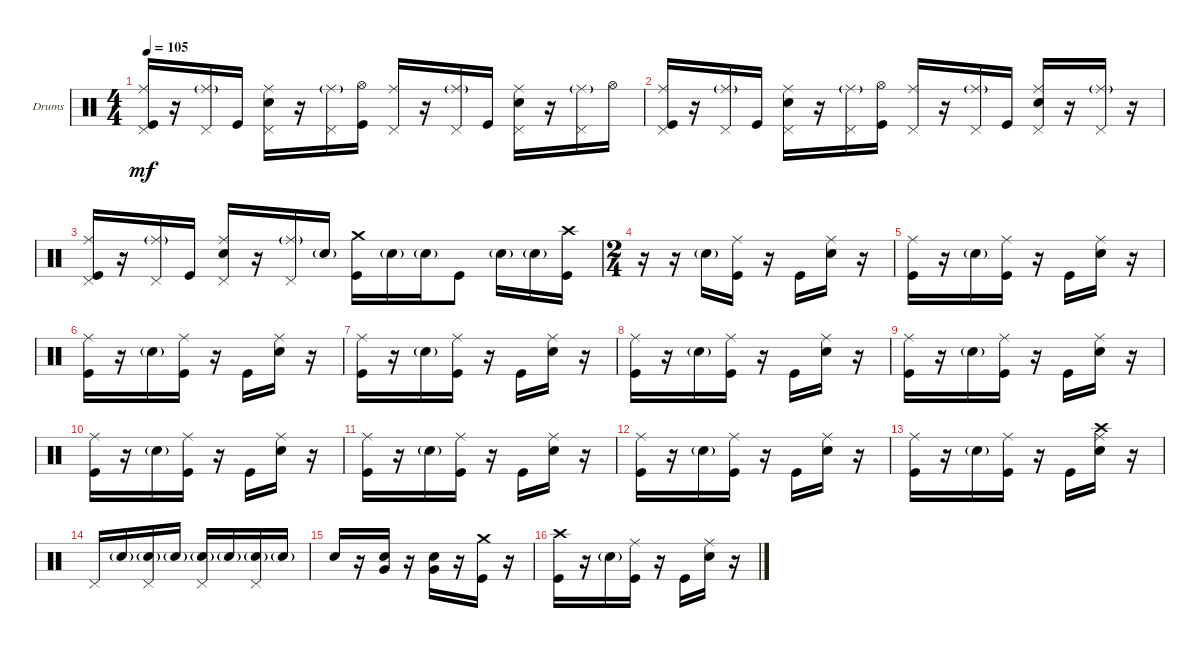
\defaultSystemsLayout 4
\bracketExtendMode groupsimilarinstruments
\firstSystemTrackNameOrientation horizontal
\otherSystemsTrackNameOrientation horizontal
\track ("Godd" "Drums") {instrument percussion}
\staff {score}
\articulation defaults
\ts (4 4)
\tempo 105
\clef neutral
\ks c
("Pedal Hi-Hat (hit)" "Kick (hit)" "Ride (middle)").16{dy mf} r.16 ("Pedal Hi-Hat (hit)" "Ride (middle)"{g}).16 "Kick (hit)".16 ("Pedal Hi-Hat (hit)" "Snare (hit) 2" "Ride (middle)").16 r.16 ("Pedal Hi-Hat (hit)" "Ride (middle)"{g}).16 ("Kick (hit)" "Hi-Hat (open)").16 ("Pedal Hi-Hat (hit)" "Ride (middle)").16 r.16 ("Pedal Hi-Hat (hit)" "Ride (middle)"{g}).16 "Kick (hit)".16 ("Pedal Hi-Hat (hit)" "Ride (middle)" "Snare (hit) 2").16 r.16 ("Pedal Hi-Hat (hit)" "Ride (middle)"{g}).16 "Hi-Hat (open)".16 |
("Pedal Hi-Hat (hit)" "Kick (hit)" "Ride (middle)").16 r.16 ("Pedal Hi-Hat (hit)" "Ride (middle)"{g}).16 "Kick (hit)".16 ("Pedal Hi-Hat (hit)" "Snare (hit) 2" "Ride (middle)").16 r.16 ("Pedal Hi-Hat (hit)" "Ride (middle)"{g}).16 ("Kick (hit)" "Hi-Hat (open)").16 ("Pedal Hi-Hat (hit)" "Ride (middle)").16 r.16 ("Pedal Hi-Hat (hit)" "Ride (middle)"{g}).16 "Kick (hit)".16 ("Pedal Hi-Hat (hit)" "Ride (middle)" "Snare (hit) 2").16 r.16 ("Pedal Hi-Hat (hit)" "Ride (middle)"{g}).16 r.16 |
("Pedal Hi-Hat (hit)" "Kick (hit)" "Ride (middle)").16 r.16 ("Pedal Hi-Hat (hit)" "Ride (middle)"{g}).16 "Kick (hit)".16 ("Pedal Hi-Hat (hit)" "Snare (hit) 2" "Ride (middle)").16 r.16 ("Pedal Hi-Hat (hit)" "Ride (middle)"{g}).16 "Snare (hit) 2"{g}.16 ("Kick (hit)" "Crash medium (hit)").16 "Snare (hit) 2"{g}.16 "Snare (hit) 2"{g}.16 "Kick (hit)".8 "Snare (hit) 2"{g}.16 "Snare (hit) 2"{g}.16 ("Kick (hit)" "Crash high (hit)").16 |
\ts (2 4)
r.16 r.16 "Snare (hit) 2"{g}.16 ("Kick (hit)" "Ride (middle)").16 r.16 "Kick (hit)".16 ("Ride (middle)" "Snare (hit) 2").16 r.16 |
("Ride (middle)" "Kick (hit)").16 r.16 "Snare (hit) 2"{g}.16 ("Kick (hit)" "Ride (middle)").16 r.16 "Kick (hit)".16 ("Snare (hit) 2" "Ride (middle)").16 r.16 |
("Ride (middle)" "Kick (hit)").16 r.16 "Snare (hit) 2"{g}.16 ("Kick (hit)" "Ride (middle)").16 r.16 "Kick (hit)".16 ("Snare (hit) 2" "Ride (middle)").16 r.16 |
("Ride (middle)" "Kick (hit)").16 r.16 "Snare (hit) 2"{g}.16 ("Kick (hit)" "Ride (middle)").16 r.16 "Kick (hit)".16 ("Snare (hit) 2" "Ride (middle)").16 r.16 |
("Ride (middle)" "Kick (hit)").16 r.16 "Snare (hit) 2"{g}.16 ("Kick (hit)" "Ride (middle)").16 r.16 "Kick (hit)".16 ("Snare (hit) 2" "Ride (middle)").16 r.16 |
("Ride (middle)" "Kick (hit)").16 r.16 "Snare (hit) 2"{g}.16 ("Kick (hit)" "Ride (middle)").16 r.16 "Kick (hit)".16 ("Snare (hit) 2" "Ride (middle)").16 r.16 |
("Ride (middle)" "Kick (hit)").16 r.16 "Snare (hit) 2"{g}.16 ("Kick (hit)" "Ride (middle)").16 r.16 "Kick (hit)".16 ("Snare (hit) 2" "Ride (middle)").16 r.16 |
("Ride (middle)" "Kick (hit)").16 r.16 "Snare (hit) 2"{g}.16 ("Kick (hit)" "Ride (middle)").16 r.16 "Kick (hit)".16 ("Snare (hit) 2" "Ride (middle)").16 r.16 |
("Ride (middle)" "Kick (hit)").16 r.16 "Snare (hit) 2"{g}.16 ("Kick (hit)" "Ride (middle)").16 r.16 "Kick (hit)".16 ("Snare (hit) 2" "Ride (middle)").16 r.16 |
("Ride (middle)" "Kick (hit)").16 r.16 "Snare (hit) 2"{g}.16 ("Kick (hit)" "Ride (middle)").16 r.16 "Kick (hit)".16 ("Snare (hit) 2" "Ride (middle)" "Crash high (hit)").16 r.16 |
"Pedal Hi-Hat (hit)".16 "Snare (hit) 2"{g}.16 ("Snare (hit) 2"{g} "Pedal Hi-Hat (hit)").16 "Snare (hit) 2"{g}.16 ("Pedal Hi-Hat (hit)" "Snare (hit) 2"{g}).16 "Snare (hit) 2"{g}.16 ("Snare (hit) 2"{g} "Pedal Hi-Hat (hit)").16 "Snare (hit) 2"{g}.16 |
"Snare (hit) 2".16 r.16 ("Snare (hit) 2" "Very Low Tom (hit)").16 r.16 ("Snare (hit) 2" "Very Low Tom (hit)").16 r.16 ("Kick (hit)" "Crash medium (hit)").16 r.16 |
("Kick (hit)" "Crash high (hit)").16 r.16 "Snare (hit) 2"{g}.16 ("Kick (hit)" "Ride (middle)").16 r.16 "Kick (hit)".16 ("Ride (middle)" "Snare (hit) 2").16 r.16
